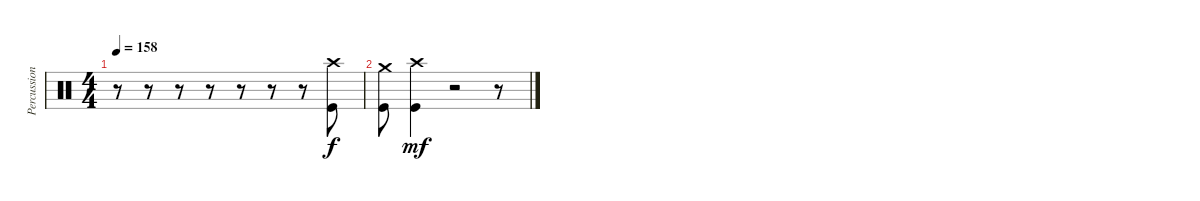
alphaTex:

\track ("Percussion" "Percussion") {instrument percussion}
\staff {score}
\articulation defaults
\ts (4 4)
\tempo 158
\clef neutral
\ks c
r.8{dy f} r.8 r.8 r.8 r.8 r.8 r.8 ("Crash high (hit)" "Kick (hit)").8 |
("Crash medium (hit)" "Kick (hit)").8 ("Crash high (hit)" "Kick (hit)").4{dy mf} r.2{volume 3} r.8
